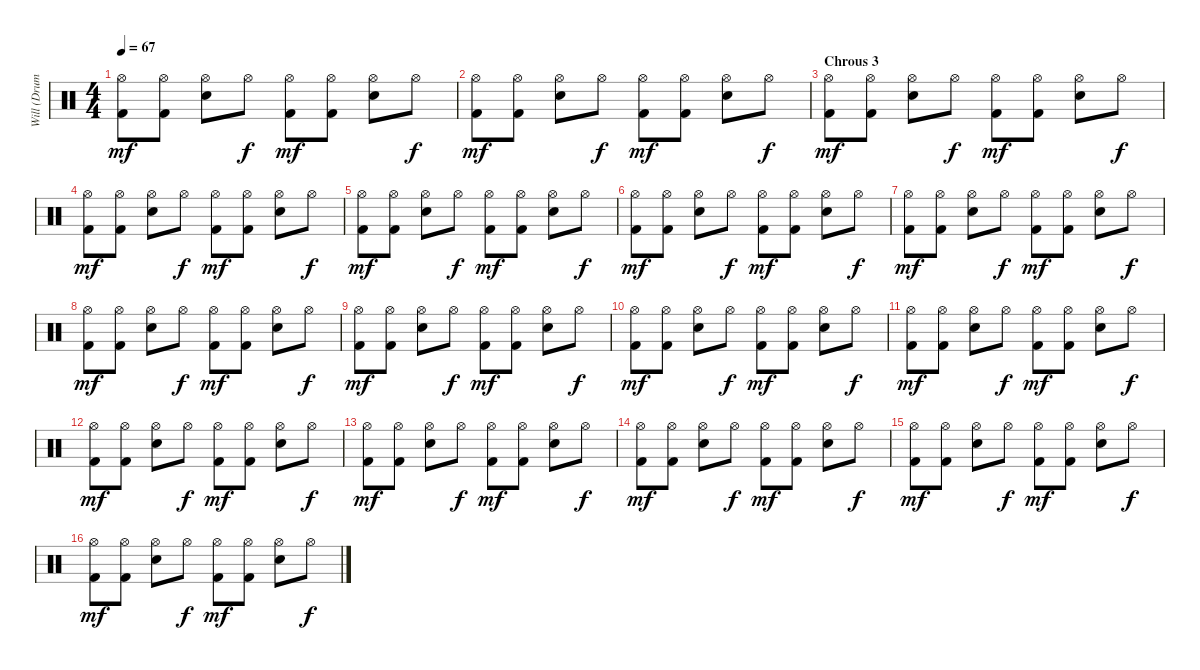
\track ("Will (Drums)" "Will (Drum") {instrument percussion}
\staff {score}
\articulation defaults
\ts (4 4)
\tempo 67
\clef neutral
\ks c
("Kick (hit) 2" "Hi-Hat (open)").8{dy mf} ("Kick (hit) 2" "Hi-Hat (open)").8 ("Snare (hit) 2" "Hi-Hat (open)").8 "Hi-Hat (open)".8{dy f} ("Kick (hit) 2" "Hi-Hat (open)").8{dy mf} ("Kick (hit) 2" "Hi-Hat (open)").8 ("Snare (hit) 2" "Hi-Hat (open)").8 "Hi-Hat (open)".8{dy f} |
("Kick (hit) 2" "Hi-Hat (open)").8{dy mf} ("Kick (hit) 2" "Hi-Hat (open)").8 ("Snare (hit) 2" "Hi-Hat (open)").8 "Hi-Hat (open)".8{dy f} ("Kick (hit) 2" "Hi-Hat (open)").8{dy mf} ("Kick (hit) 2" "Hi-Hat (open)").8 ("Snare (hit) 2" "Hi-Hat (open)").8 "Hi-Hat (open)".8{dy f} |
\section ("" "Chrous 3")
("Kick (hit) 2" "Hi-Hat (open)").8{dy mf} ("Kick (hit) 2" "Hi-Hat (open)").8 ("Snare (hit) 2" "Hi-Hat (open)").8 "Hi-Hat (open)".8{dy f} ("Kick (hit) 2" "Hi-Hat (open)").8{dy mf} ("Kick (hit) 2" "Hi-Hat (open)").8 ("Snare (hit) 2" "Hi-Hat (open)").8 "Hi-Hat (open)".8{dy f} |
("Kick (hit) 2" "Hi-Hat (open)").8{dy mf} ("Kick (hit) 2" "Hi-Hat (open)").8 ("Snare (hit) 2" "Hi-Hat (open)").8 "Hi-Hat (open)".8{dy f} ("Kick (hit) 2" "Hi-Hat (open)").8{dy mf} ("Kick (hit) 2" "Hi-Hat (open)").8 ("Snare (hit) 2" "Hi-Hat (open)").8 "Hi-Hat (open)".8{dy f} |
("Kick (hit) 2" "Hi-Hat (open)").8{dy mf} ("Kick (hit) 2" "Hi-Hat (open)").8 ("Snare (hit) 2" "Hi-Hat (open)").8 "Hi-Hat (open)".8{dy f} ("Kick (hit) 2" "Hi-Hat (open)").8{dy mf} ("Kick (hit) 2" "Hi-Hat (open)").8 ("Snare (hit) 2" "Hi-Hat (open)").8 "Hi-Hat (open)".8{dy f} |
("Kick (hit) 2" "Hi-Hat (open)").8{dy mf} ("Kick (hit) 2" "Hi-Hat (open)").8 ("Snare (hit) 2" "Hi-Hat (open)").8 "Hi-Hat (open)".8{dy f} ("Kick (hit) 2" "Hi-Hat (open)").8{dy mf} ("Kick (hit) 2" "Hi-Hat (open)").8 ("Snare (hit) 2" "Hi-Hat (open)").8 "Hi-Hat (open)".8{dy f} |
("Kick (hit) 2" "Hi-Hat (open)").8{dy mf} ("Kick (hit) 2" "Hi-Hat (open)").8 ("Snare (hit) 2" "Hi-Hat (open)").8 "Hi-Hat (open)".8{dy f} ("Kick (hit) 2" "Hi-Hat (open)").8{dy mf} ("Kick (hit) 2" "Hi-Hat (open)").8 ("Snare (hit) 2" "Hi-Hat (open)").8 "Hi-Hat (open)".8{dy f} |
("Kick (hit) 2" "Hi-Hat (open)").8{dy mf} ("Kick (hit) 2" "Hi-Hat (open)").8 ("Snare (hit) 2" "Hi-Hat (open)").8 "Hi-Hat (open)".8{dy f} ("Kick (hit) 2" "Hi-Hat (open)").8{dy mf} ("Kick (hit) 2" "Hi-Hat (open)").8 ("Snare (hit) 2" "Hi-Hat (open)").8 "Hi-Hat (open)".8{dy f} |
("Kick (hit) 2" "Hi-Hat (open)").8{dy mf} ("Kick (hit) 2" "Hi-Hat (open)").8 ("Snare (hit) 2" "Hi-Hat (open)").8 "Hi-Hat (open)".8{dy f} ("Kick (hit) 2" "Hi-Hat (open)").8{dy mf} ("Kick (hit) 2" "Hi-Hat (open)").8 ("Snare (hit) 2" "Hi-Hat (open)").8 "Hi-Hat (open)".8{dy f} |
("Kick (hit) 2" "Hi-Hat (open)").8{dy mf} ("Kick (hit) 2" "Hi-Hat (open)").8 ("Snare (hit) 2" "Hi-Hat (open)").8 "Hi-Hat (open)".8{dy f} ("Kick (hit) 2" "Hi-Hat (open)").8{dy mf} ("Kick (hit) 2" "Hi-Hat (open)").8 ("Snare (hit) 2" "Hi-Hat (open)").8 "Hi-Hat (open)".8{dy f} |
("Kick (hit) 2" "Hi-Hat (open)").8{dy mf} ("Kick (hit) 2" "Hi-Hat (open)").8 ("Snare (hit) 2" "Hi-Hat (open)").8 "Hi-Hat (open)".8{dy f} ("Kick (hit) 2" "Hi-Hat (open)").8{dy mf} ("Kick (hit) 2" "Hi-Hat (open)").8 ("Snare (hit) 2" "Hi-Hat (open)").8 "Hi-Hat (open)".8{dy f} |
("Kick (hit) 2" "Hi-Hat (open)").8{dy mf} ("Kick (hit) 2" "Hi-Hat (open)").8 ("Snare (hit) 2" "Hi-Hat (open)").8 "Hi-Hat (open)".8{dy f} ("Kick (hit) 2" "Hi-Hat (open)").8{dy mf} ("Kick (hit) 2" "Hi-Hat (open)").8 ("Snare (hit) 2" "Hi-Hat (open)").8 "Hi-Hat (open)".8{dy f} |
("Kick (hit) 2" "Hi-Hat (open)").8{dy mf} ("Kick (hit) 2" "Hi-Hat (open)").8 ("Snare (hit) 2" "Hi-Hat (open)").8 "Hi-Hat (open)".8{dy f} ("Kick (hit) 2" "Hi-Hat (open)").8{dy mf} ("Kick (hit) 2" "Hi-Hat (open)").8 ("Snare (hit) 2" "Hi-Hat (open)").8 "Hi-Hat (open)".8{dy f} |
("Kick (hit) 2" "Hi-Hat (open)").8{dy mf} ("Kick (hit) 2" "Hi-Hat (open)").8 ("Snare (hit) 2" "Hi-Hat (open)").8 "Hi-Hat (open)".8{dy f} ("Kick (hit) 2" "Hi-Hat (open)").8{dy mf} ("Kick (hit) 2" "Hi-Hat (open)").8 ("Snare (hit) 2" "Hi-Hat (open)").8 "Hi-Hat (open)".8{dy f} |
("Kick (hit) 2" "Hi-Hat (open)").8{dy mf} ("Kick (hit) 2" "Hi-Hat (open)").8 ("Snare (hit) 2" "Hi-Hat (open)").8 "Hi-Hat (open)".8{dy f} ("Kick (hit) 2" "Hi-Hat (open)").8{dy mf} ("Kick (hit) 2" "Hi-Hat (open)").8 ("Snare (hit) 2" "Hi-Hat (open)").8 "Hi-Hat (open)".8{dy f} |
("Kick (hit) 2" "Hi-Hat (open)").8{dy mf} ("Kick (hit) 2" "Hi-Hat (open)").8 ("Snare (hit) 2" "Hi-Hat (open)").8 "Hi-Hat (open)".8{dy f} ("Kick (hit) 2" "Hi-Hat (open)").8{dy mf} ("Kick (hit) 2" "Hi-Hat (open)").8 ("Snare (hit) 2" "Hi-Hat (open)").8 "Hi-Hat (open)".8{dy f}
